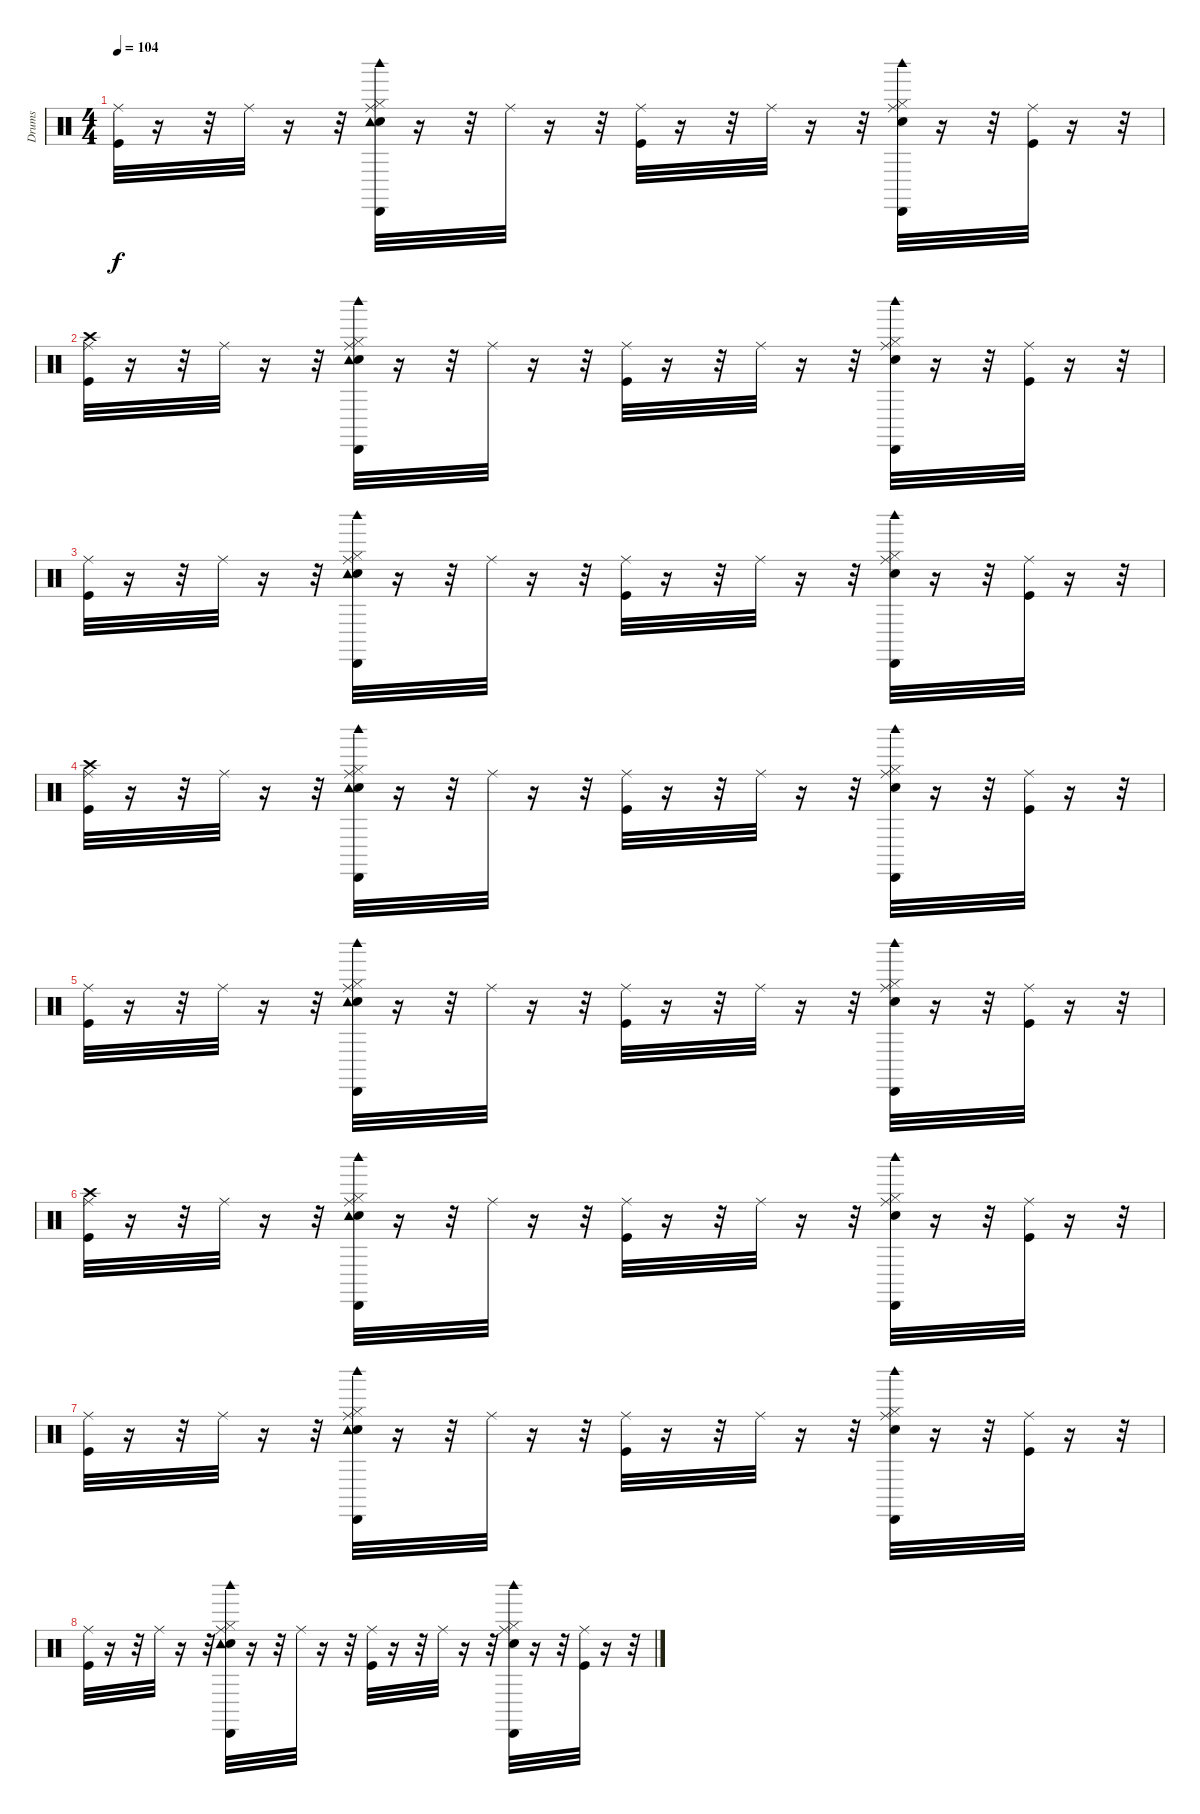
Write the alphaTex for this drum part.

\track ("Drums" "Drums") {instrument percussion}
\staff {score}
\articulation defaults
\ts (4 4)
\tempo 104
\clef neutral
\ks c
("Kick (hit)" "Ride (middle)").32{dy f} r.16 r.32 "Ride (middle)".32 r.16 r.32 ("Snare (hit) 2" "Hi-Hat (closed)" "Ride (middle)" "Tambourine (hit)" "Cabasa (hit)" "Woodblock high (hit)").32 r.16 r.32 "Ride (middle)".32 r.16 r.32 ("Kick (hit)" "Ride (middle)").32 r.16 r.32 "Ride (middle)".32 r.16 r.32 ("Snare (hit) 2" "Hi-Hat (closed)" "Ride (middle)" "Cabasa (hit)" "Woodblock high (hit)").32 r.16 r.32 ("Kick (hit)" "Ride (middle)").32 r.16 r.32 |
("Kick (hit)" "Crash high (hit)" "Ride (middle)").32 r.16 r.32 "Ride (middle)".32 r.16 r.32 ("Snare (hit) 2" "Hi-Hat (closed)" "Ride (middle)" "Tambourine (hit)" "Cabasa (hit)" "Woodblock high (hit)").32 r.16 r.32 "Ride (middle)".32 r.16 r.32 ("Kick (hit)" "Ride (middle)").32 r.16 r.32 "Ride (middle)".32 r.16 r.32 ("Snare (hit) 2" "Hi-Hat (closed)" "Ride (middle)" "Cabasa (hit)" "Woodblock high (hit)").32 r.16 r.32 ("Kick (hit)" "Ride (middle)").32 r.16 r.32 |
("Kick (hit)" "Ride (middle)").32 r.16 r.32 "Ride (middle)".32 r.16 r.32 ("Snare (hit) 2" "Hi-Hat (closed)" "Ride (middle)" "Tambourine (hit)" "Cabasa (hit)" "Woodblock high (hit)").32 r.16 r.32 "Ride (middle)".32 r.16 r.32 ("Kick (hit)" "Ride (middle)").32 r.16 r.32 "Ride (middle)".32 r.16 r.32 ("Snare (hit) 2" "Hi-Hat (closed)" "Ride (middle)" "Cabasa (hit)" "Woodblock high (hit)").32 r.16 r.32 ("Kick (hit)" "Ride (middle)").32 r.16 r.32 |
("Kick (hit)" "Crash high (hit)" "Ride (middle)").32 r.16 r.32 "Ride (middle)".32 r.16 r.32 ("Snare (hit) 2" "Hi-Hat (closed)" "Ride (middle)" "Tambourine (hit)" "Cabasa (hit)" "Woodblock high (hit)").32 r.16 r.32 "Ride (middle)".32 r.16 r.32 ("Kick (hit)" "Ride (middle)").32 r.16 r.32 "Ride (middle)".32 r.16 r.32 ("Snare (hit) 2" "Hi-Hat (closed)" "Ride (middle)" "Cabasa (hit)" "Woodblock high (hit)").32 r.16 r.32 ("Kick (hit)" "Ride (middle)").32 r.16 r.32 |
("Kick (hit)" "Ride (middle)").32 r.16 r.32 "Ride (middle)".32 r.16 r.32 ("Snare (hit) 2" "Hi-Hat (closed)" "Ride (middle)" "Tambourine (hit)" "Cabasa (hit)" "Woodblock high (hit)").32 r.16 r.32 "Ride (middle)".32 r.16 r.32 ("Kick (hit)" "Ride (middle)").32 r.16 r.32 "Ride (middle)".32 r.16 r.32 ("Snare (hit) 2" "Hi-Hat (closed)" "Ride (middle)" "Cabasa (hit)" "Woodblock high (hit)").32 r.16 r.32 ("Kick (hit)" "Ride (middle)").32 r.16 r.32 |
("Kick (hit)" "Crash high (hit)" "Ride (middle)").32 r.16 r.32 "Ride (middle)".32 r.16 r.32 ("Snare (hit) 2" "Hi-Hat (closed)" "Ride (middle)" "Tambourine (hit)" "Cabasa (hit)" "Woodblock high (hit)").32 r.16 r.32 "Ride (middle)".32 r.16 r.32 ("Kick (hit)" "Ride (middle)").32 r.16 r.32 "Ride (middle)".32 r.16 r.32 ("Snare (hit) 2" "Hi-Hat (closed)" "Ride (middle)" "Cabasa (hit)" "Woodblock high (hit)").32 r.16 r.32 ("Kick (hit)" "Ride (middle)").32 r.16 r.32 |
("Kick (hit)" "Ride (middle)").32 r.16 r.32 "Ride (middle)".32 r.16 r.32 ("Snare (hit) 2" "Hi-Hat (closed)" "Ride (middle)" "Tambourine (hit)" "Cabasa (hit)" "Woodblock high (hit)").32 r.16 r.32 "Ride (middle)".32 r.16 r.32 ("Kick (hit)" "Ride (middle)").32 r.16 r.32 "Ride (middle)".32 r.16 r.32 ("Snare (hit) 2" "Hi-Hat (closed)" "Ride (middle)" "Cabasa (hit)" "Woodblock high (hit)").32 r.16 r.32 ("Kick (hit)" "Ride (middle)").32 r.16 r.32 |
("Kick (hit)" "Ride (middle)").32 r.16 r.32 "Ride (middle)".32 r.16 r.32 ("Snare (hit) 2" "Hi-Hat (closed)" "Ride (middle)" "Tambourine (hit)" "Cabasa (hit)" "Woodblock high (hit)").32 r.16 r.32 "Ride (middle)".32 r.16 r.32 ("Kick (hit)" "Ride (middle)").32 r.16 r.32 "Ride (middle)".32 r.16 r.32 ("Snare (hit) 2" "Hi-Hat (closed)" "Ride (middle)" "Cabasa (hit)" "Woodblock high (hit)").32 r.16 r.32 ("Kick (hit)" "Ride (middle)").32 r.16 r.32
